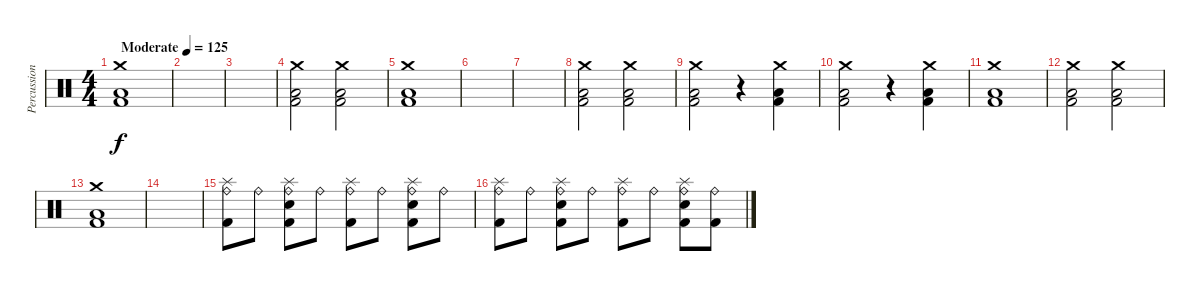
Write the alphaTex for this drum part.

\track ("Percussion" "Percussion") {instrument percussion}
\staff {score}
\articulation defaults
\ts (4 4)
\tempo (125 "Moderate")
\clef neutral
\ks c
("Crash medium (hit)" "Low Floor Tom (hit)" "Kick (hit) 2").1{dy f} |
|
|
("Crash medium (hit)" "Low Floor Tom (hit)" "Kick (hit) 2").2 ("Crash medium (hit)" "Low Floor Tom (hit)" "Kick (hit) 2").2 |
("Crash medium (hit)" "Low Floor Tom (hit)" "Kick (hit) 2").1 |
|
|
("Crash medium (hit)" "Low Floor Tom (hit)" "Kick (hit) 2").2 ("Crash medium (hit)" "Low Floor Tom (hit)" "Kick (hit) 2").2 |
("Crash medium (hit)" "Low Floor Tom (hit)" "Kick (hit) 2").2 r.4 ("Crash medium (hit)" "Low Floor Tom (hit)" "Kick (hit) 2").4 |
("Crash medium (hit)" "Low Floor Tom (hit)" "Kick (hit) 2").2 r.4 ("Crash medium (hit)" "Low Floor Tom (hit)" "Kick (hit) 2").4 |
("Crash medium (hit)" "Low Floor Tom (hit)" "Kick (hit) 2").1 |
("Crash medium (hit)" "Low Floor Tom (hit)" "Kick (hit) 2").2 ("Crash medium (hit)" "Low Floor Tom (hit)" "Kick (hit) 2").2 |
("Crash medium (hit)" "Low Floor Tom (hit)" "Kick (hit) 2").1 |
|
("Splash (hit)" "Ride (bell)" "Kick (hit) 2").8 "Ride (bell)".8 ("Splash (hit)" "Ride (bell)" "Snare (hit) 2" "Kick (hit) 2").8 "Ride (bell)".8 ("Splash (hit)" "Ride (bell)" "Kick (hit) 2").8 "Ride (bell)".8 ("Splash (hit)" "Ride (bell)" "Snare (hit) 2" "Kick (hit) 2").8 "Ride (bell)".8 |
("Splash (hit)" "Ride (bell)" "Kick (hit) 2").8 "Ride (bell)".8 ("Splash (hit)" "Ride (bell)" "Snare (hit) 2" "Kick (hit) 2").8 "Ride (bell)".8 ("Splash (hit)" "Ride (bell)" "Kick (hit) 2").8 "Ride (bell)".8 ("Splash (hit)" "Ride (bell)" "Snare (hit) 2" "Kick (hit) 2").8 ("Ride (bell)" "Kick (hit) 2").8
